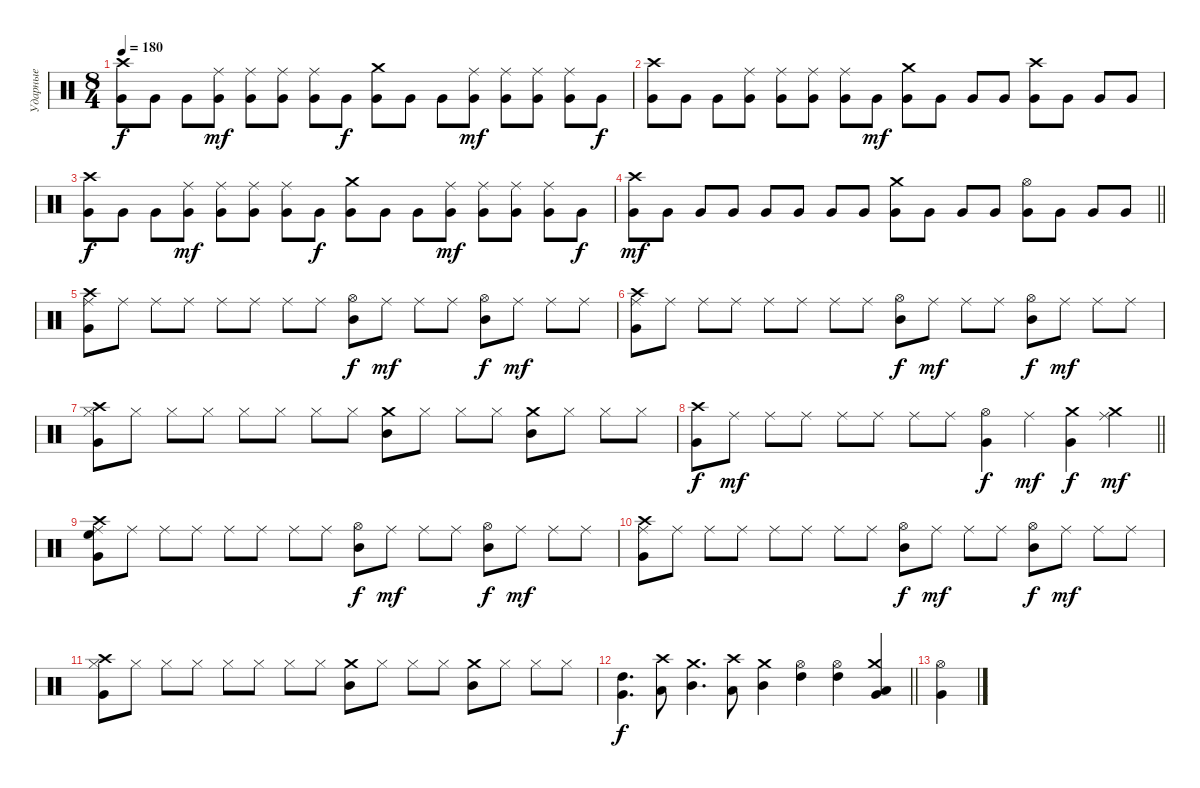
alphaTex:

\track ("Ударные" "Ударные") {instrument percussion}
\staff {score}
\articulation defaults
\ts (8 4)
\tempo 180
\clef neutral
\ks c
("Crash high (hit)" "Very Low Tom (hit)").8{dy f} "Very Low Tom (hit)".8 "Very Low Tom (hit)".8 ("Ride (middle)" "Very Low Tom (hit)").8{dy mf} ("Ride (middle)" "Very Low Tom (hit)").8 ("Ride (middle)" "Very Low Tom (hit)").8 ("Ride (middle)" "Very Low Tom (hit)").8 "Very Low Tom (hit)".8{dy f} ("Crash medium (hit)" "Very Low Tom (hit)").8 "Very Low Tom (hit)".8 "Very Low Tom (hit)".8 ("Ride (middle)" "Very Low Tom (hit)").8{dy mf} ("Ride (middle)" "Very Low Tom (hit)").8 ("Ride (middle)" "Very Low Tom (hit)").8 ("Ride (middle)" "Very Low Tom (hit)").8 "Very Low Tom (hit)".8{dy f} |
("Crash high (hit)" "Very Low Tom (hit)").8 "Very Low Tom (hit)".8 "Very Low Tom (hit)".8 ("Ride (middle)" "Very Low Tom (hit)").8 ("Ride (middle)" "Very Low Tom (hit)").8 ("Ride (middle)" "Very Low Tom (hit)").8 ("Ride (middle)" "Very Low Tom (hit)").8 "Very Low Tom (hit)".8{dy mf} ("Crash medium (hit)" "Very Low Tom (hit)").8 "Very Low Tom (hit)".8 "Very Low Tom (hit)".8 "Very Low Tom (hit)".8 ("Crash high (hit)" "Very Low Tom (hit)").8 "Very Low Tom (hit)".8 "Very Low Tom (hit)".8 "Very Low Tom (hit)".8 |
("Crash high (hit)" "Very Low Tom (hit)").8{dy f} "Very Low Tom (hit)".8 "Very Low Tom (hit)".8 ("Ride (middle)" "Very Low Tom (hit)").8{dy mf} ("Ride (middle)" "Very Low Tom (hit)").8 ("Ride (middle)" "Very Low Tom (hit)").8 ("Ride (middle)" "Very Low Tom (hit)").8 "Very Low Tom (hit)".8{dy f} ("Crash medium (hit)" "Very Low Tom (hit)").8 "Very Low Tom (hit)".8 "Very Low Tom (hit)".8 ("Ride (middle)" "Very Low Tom (hit)").8{dy mf} ("Ride (middle)" "Very Low Tom (hit)").8 ("Ride (middle)" "Very Low Tom (hit)").8 ("Ride (middle)" "Very Low Tom (hit)").8 "Very Low Tom (hit)".8{dy f} |
\barLineRight lightlight
("Crash high (hit)" "Very Low Tom (hit)").8{dy mf} "Very Low Tom (hit)".8 "Very Low Tom (hit)".8 "Very Low Tom (hit)".8 "Very Low Tom (hit)".8 "Very Low Tom (hit)".8 "Very Low Tom (hit)".8 "Very Low Tom (hit)".8 ("Crash medium (hit)" "Very Low Tom (hit)").8 "Very Low Tom (hit)".8 "Very Low Tom (hit)".8 "Very Low Tom (hit)".8 ("Hi-Hat (open)" "Very Low Tom (hit)").8 "Very Low Tom (hit)".8 "Very Low Tom (hit)".8 "Very Low Tom (hit)".8 |
\section ("" "")
("Ride (middle)" "Crash high (hit)" "Very Low Tom (hit)").8 "Ride (middle)".8 "Ride (middle)".8 "Ride (middle)".8 "Ride (middle)".8 "Ride (middle)".8 "Ride (middle)".8 "Ride (middle)".8 ("Hi-Hat (open)" "Mid Tom (hit)").8{dy f} "Ride (middle)".8{dy mf} "Ride (middle)".8 "Ride (middle)".8 ("Hi-Hat (open)" "Mid Tom (hit)").8{dy f} "Ride (middle)".8{dy mf} "Ride (middle)".8 "Ride (middle)".8 |
("Ride (middle)" "Crash high (hit)" "Very Low Tom (hit)").8 "Ride (middle)".8 "Ride (middle)".8 "Ride (middle)".8 "Ride (middle)".8 "Ride (middle)".8 "Ride (middle)".8 "Ride (middle)".8 ("Hi-Hat (open)" "Mid Tom (hit)").8{dy f} "Ride (middle)".8{dy mf} "Ride (middle)".8 "Ride (middle)".8 ("Hi-Hat (open)" "Mid Tom (hit)").8{dy f} "Ride (middle)".8{dy mf} "Ride (middle)".8 "Ride (middle)".8 |
("Hi-Hat (closed)" "Crash high (hit)" "Very Low Tom (hit)").8 "Hi-Hat (closed)".8 "Hi-Hat (closed)".8 "Hi-Hat (closed)".8 "Hi-Hat (closed)".8 "Hi-Hat (closed)".8 "Hi-Hat (closed)".8 "Hi-Hat (closed)".8 ("Crash medium (hit)" "Mid Tom (hit)").8 "Hi-Hat (closed)".8 "Hi-Hat (closed)".8 "Hi-Hat (closed)".8 ("Crash medium (hit)" "Mid Tom (hit)").8 "Hi-Hat (closed)".8 "Hi-Hat (closed)".8 "Hi-Hat (closed)".8 |
\barLineRight lightlight
("Crash high (hit)" "Very Low Tom (hit)").8{dy f} "Ride (middle)".8{dy mf} "Ride (middle)".8 "Ride (middle)".8 "Ride (middle)".8 "Ride (middle)".8 "Ride (middle)".8 "Ride (middle)".8 ("Hi-Hat (open)" "Very Low Tom (hit)").4{dy f} "Ride (middle)".4{dy mf} ("Crash medium (hit)" "Very Low Tom (hit)").4{dy f} ("Crash medium (hit)" "Ride (middle)").4{dy mf} |
("High Floor Tom (hit)" "Ride (middle)" "Crash high (hit)" "Very Low Tom (hit)").8 "Ride (middle)".8 "Ride (middle)".8 "Ride (middle)".8 "Ride (middle)".8 "Ride (middle)".8 "Ride (middle)".8 "Ride (middle)".8 ("Hi-Hat (open)" "Mid Tom (hit)").8{dy f} "Ride (middle)".8{dy mf} "Ride (middle)".8 "Ride (middle)".8 ("Hi-Hat (open)" "Mid Tom (hit)").8{dy f} "Ride (middle)".8{dy mf} "Ride (middle)".8 "Ride (middle)".8 |
("Ride (middle)" "Crash high (hit)" "Very Low Tom (hit)").8 "Ride (middle)".8 "Ride (middle)".8 "Ride (middle)".8 "Ride (middle)".8 "Ride (middle)".8 "Ride (middle)".8 "Ride (middle)".8 ("Hi-Hat (open)" "Mid Tom (hit)").8{dy f} "Ride (middle)".8{dy mf} "Ride (middle)".8 "Ride (middle)".8 ("Hi-Hat (open)" "Mid Tom (hit)").8{dy f} "Ride (middle)".8{dy mf} "Ride (middle)".8 "Ride (middle)".8 |
("Hi-Hat (closed)" "Crash high (hit)" "Very Low Tom (hit)").8 "Hi-Hat (closed)".8 "Hi-Hat (closed)".8 "Hi-Hat (closed)".8 "Hi-Hat (closed)".8 "Hi-Hat (closed)".8 "Hi-Hat (closed)".8 "Hi-Hat (closed)".8 ("Crash medium (hit)" "Mid Tom (hit)").8 "Hi-Hat (closed)".8 "Hi-Hat (closed)".8 "Hi-Hat (closed)".8 ("Crash medium (hit)" "Mid Tom (hit)").8 "Hi-Hat (closed)".8 "Hi-Hat (closed)".8 "Hi-Hat (closed)".8 |
\barLineRight lightlight
("High Tom (hit)" "Very Low Tom (hit)").4{d dy f} ("Crash high (hit)" "Low Tom (hit)").8 ("Crash medium (hit)" "Mid Tom (hit)").4{d} ("Crash high (hit)" "Low Tom (hit)").8 ("Crash medium (hit)" "Mid Tom (hit)").4 ("Hi-Hat (open)" "High Tom (hit)").4 ("Hi-Hat (open)" "High Tom (hit)").4 ("Crash medium (hit)" "Low Tom (hit)" "Very Low Tom (hit)").4 |
\section ("" "")
("Hi-Hat (open)" "Very Low Tom (hit)").4
